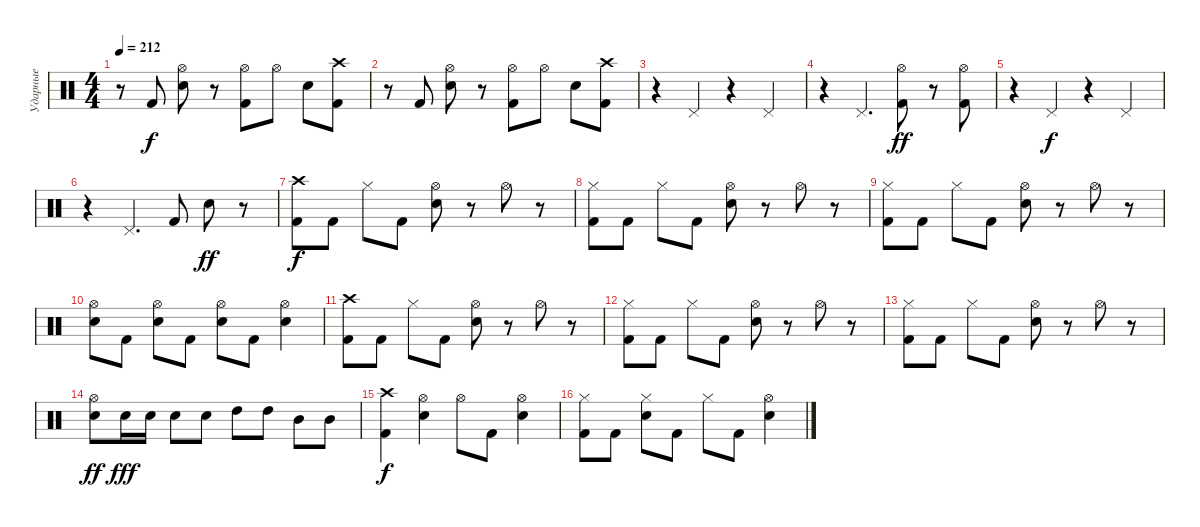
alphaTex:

\track ("Ударные" "Ударные") {instrument percussion}
\staff {score}
\articulation defaults
\ts (4 4)
\tempo 212
\clef neutral
\ks c
r.8{dy f} "Kick (hit) 2".8 ("Hi-Hat (open)" "Electric Snare (hit)").8 r.8 ("Hi-Hat (open)" "Kick (hit) 2").8 "Hi-Hat (open)".8 "Electric Snare (hit)".8 ("Crash high (hit)" "Kick (hit) 2").8 |
r.8 "Kick (hit) 2".8 ("Hi-Hat (open)" "Electric Snare (hit)").8 r.8 ("Hi-Hat (open)" "Kick (hit) 2").8 "Hi-Hat (open)".8 "Electric Snare (hit)".8 ("Crash high (hit)" "Kick (hit) 2").8 |
r.4 "Pedal Hi-Hat (hit)".4 r.4 "Pedal Hi-Hat (hit)".4 |
r.4 "Pedal Hi-Hat (hit)".4{d} ("Hi-Hat (open)" "Kick (hit) 2").8{dy ff} r.8 ("Hi-Hat (open)" "Kick (hit) 2").8 |
r.4 "Pedal Hi-Hat (hit)".4{dy f} r.4 "Pedal Hi-Hat (hit)".4 |
r.4 "Pedal Hi-Hat (hit)".4{d} "Kick (hit) 2".8 "Electric Snare (hit)".8{dy ff} r.8 |
("Crash high (hit)" "Kick (hit) 2").8{dy f} "Kick (hit) 2".8 "Hi-Hat (closed)".8 "Kick (hit) 2".8 ("Hi-Hat (open)" "Electric Snare (hit)").8 r.8 "Hi-Hat (open)".8 r.8 |
("Hi-Hat (closed)" "Kick (hit) 2").8 "Kick (hit) 2".8 "Hi-Hat (closed)".8 "Kick (hit) 2".8 ("Hi-Hat (open)" "Electric Snare (hit)").8 r.8 "Hi-Hat (open)".8 r.8 |
("Hi-Hat (closed)" "Kick (hit) 2").8 "Kick (hit) 2".8 "Hi-Hat (closed)".8 "Kick (hit) 2".8 ("Hi-Hat (open)" "Electric Snare (hit)").8 r.8 "Hi-Hat (open)".8 r.8 |
("Hi-Hat (open)" "Electric Snare (hit)").8 "Kick (hit) 2".8 ("Hi-Hat (open)" "Electric Snare (hit)").8 "Kick (hit) 2".8 ("Hi-Hat (open)" "Electric Snare (hit)").8 "Kick (hit) 2".8 ("Hi-Hat (open)" "Electric Snare (hit)").4 |
("Crash high (hit)" "Kick (hit) 2").8 "Kick (hit) 2".8 "Hi-Hat (closed)".8 "Kick (hit) 2".8 ("Hi-Hat (open)" "Electric Snare (hit)").8 r.8 "Hi-Hat (open)".8 r.8 |
("Hi-Hat (closed)" "Kick (hit) 2").8 "Kick (hit) 2".8 "Hi-Hat (closed)".8 "Kick (hit) 2".8 ("Hi-Hat (open)" "Electric Snare (hit)").8 r.8 "Hi-Hat (open)".8 r.8 |
("Hi-Hat (closed)" "Kick (hit) 2").8 "Kick (hit) 2".8 "Hi-Hat (closed)".8 "Kick (hit) 2".8 ("Hi-Hat (open)" "Electric Snare (hit)").8 r.8 "Hi-Hat (open)".8 r.8 |
("Hi-Hat (open)" "Electric Snare (hit)").8{dy ff} "Electric Snare (hit)".16{dy fff} "Electric Snare (hit)".16 "Electric Snare (hit)".8 "Electric Snare (hit)".8 "High Tom (hit)".8 "High Tom (hit)".8 "Mid Tom (hit)".8 "Mid Tom (hit)".8 |
("Crash high (hit)" "Kick (hit) 2").4{dy f} ("Hi-Hat (open)" "Electric Snare (hit)").4 "Hi-Hat (open)".8 "Kick (hit) 2".8 ("Hi-Hat (open)" "Electric Snare (hit)").4 |
("Hi-Hat (closed)" "Kick (hit) 2").8 "Kick (hit) 2".8 ("Hi-Hat (closed)" "Electric Snare (hit)").8 "Kick (hit) 2".8 "Hi-Hat (closed)".8 "Kick (hit) 2".8 ("Hi-Hat (open)" "Electric Snare (hit)").4
